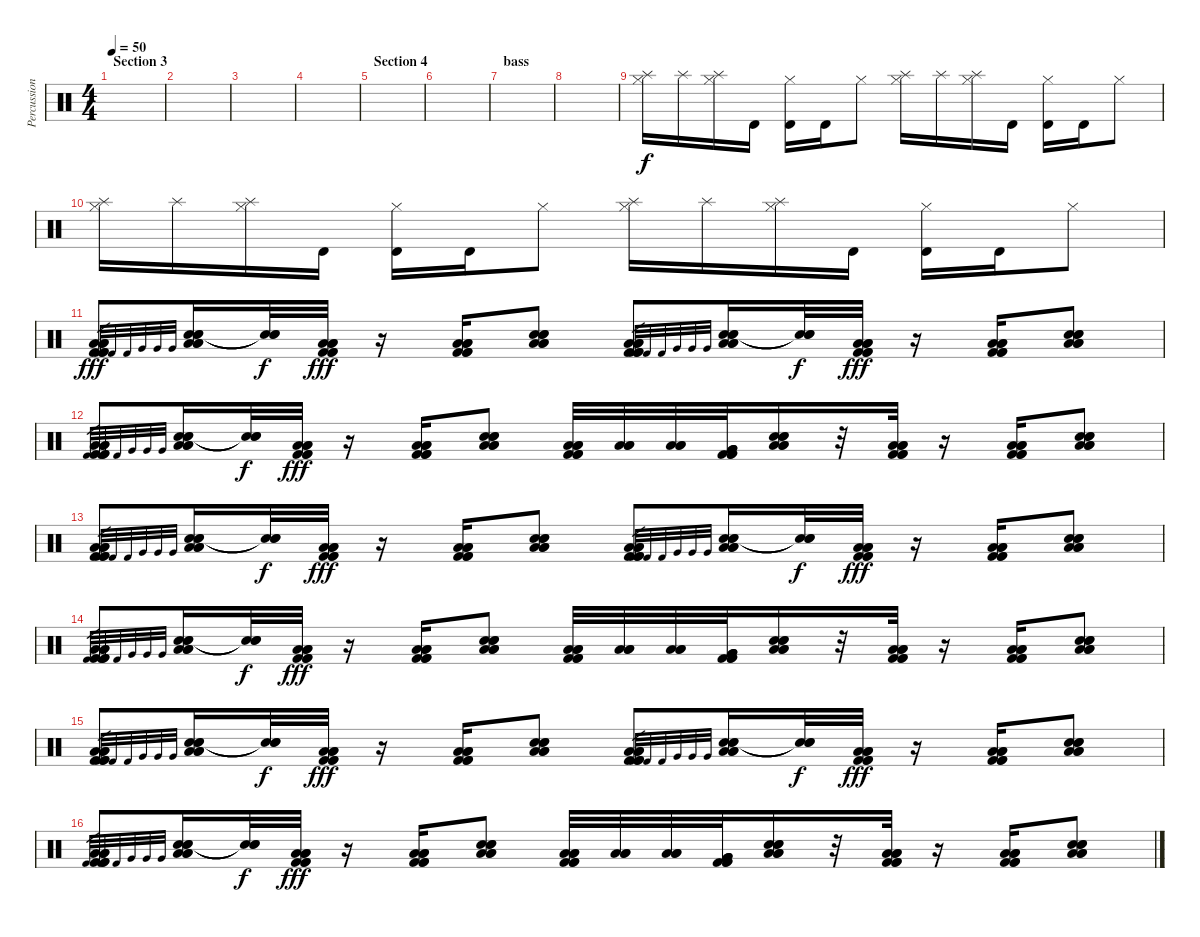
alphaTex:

\track ("Percussion" "Percussion") {instrument percussion}
\staff {score}
\articulation defaults
\ts (4 4)
\section ("" "Section 3")
\tempo 50
\clef neutral
\ks c
|
|
|
|
\section ("" "Section 4")
|
|
\section ("" "bass")
|
|
("Splash (hit)" "Hi-Hat (closed)").16 "Splash (hit)".16 ("Splash (hit)" "Hi-Hat (closed)").16 "Timbale high (hit)".16 ("Timbale high (hit)" "Hi-Hat (closed)").16 "Timbale high (hit)".16 "Hi-Hat (closed)".8 ("Splash (hit)" "Hi-Hat (closed)").16 "Splash (hit)".16 ("Splash (hit)" "Hi-Hat (closed)").16 "Timbale high (hit)".16 ("Timbale high (hit)" "Hi-Hat (closed)").16 "Timbale high (hit)".16 "Hi-Hat (closed)".8 |
("Splash (hit)" "Hi-Hat (closed)").16 "Splash (hit)".16 ("Splash (hit)" "Hi-Hat (closed)").16 "Timbale high (hit)".16 ("Timbale high (hit)" "Hi-Hat (closed)").16 "Timbale high (hit)".16 "Hi-Hat (closed)".8 ("Splash (hit)" "Hi-Hat (closed)").16 "Splash (hit)".16 ("Splash (hit)" "Hi-Hat (closed)").16 "Timbale high (hit)".16 ("Timbale high (hit)" "Hi-Hat (closed)").16 "Timbale high (hit)".16 "Hi-Hat (closed)".8 |
("Kick (hit) 2" "Kick (hit) 2" "Kick (hit) 2" "Low Floor Tom (hit)" "Low Floor Tom (hit)" "Low Floor Tom (hit)").8{dy fff} "Kick (hit) 2".32{gr} "Kick (hit) 2".32{gr} "Kick (hit) 2".32{gr} "Very Low Tom (hit)".32{gr} "Very Low Tom (hit)".32{gr} "Very Low Tom (hit)".32{gr} ("Electric Snare (hit)" "Electric Snare (hit)" "Electric Snare (hit)" "Low Tom (hit)" "Low Tom (hit)" "Low Tom (hit)").16 ("Snare (hit)"{t} "Snare (hit)"{t} "Snare (hit)"{t}).32{dy f} ("Kick (hit) 2" "Kick (hit) 2" "Kick (hit) 2" "Low Floor Tom (hit)" "Low Floor Tom (hit)" "Low Floor Tom (hit)").32{dy fff} r.16 ("Kick (hit) 2" "Kick (hit) 2" "Kick (hit) 2" "Low Floor Tom (hit)" "Low Floor Tom (hit)" "Low Floor Tom (hit)").16 ("Electric Snare (hit)" "Electric Snare (hit)" "Electric Snare (hit)" "Low Tom (hit)" "Low Tom (hit)" "Low Tom (hit)").8 ("Kick (hit) 2" "Kick (hit) 2" "Kick (hit) 2" "Low Floor Tom (hit)" "Low Floor Tom (hit)" "Low Floor Tom (hit)").8 "Kick (hit) 2".32{gr} "Kick (hit) 2".32{gr} "Kick (hit) 2".32{gr} "Very Low Tom (hit)".32{gr} "Very Low Tom (hit)".32{gr} "Very Low Tom (hit)".32{gr} ("Electric Snare (hit)" "Electric Snare (hit)" "Electric Snare (hit)" "Low Tom (hit)" "Low Tom (hit)" "Low Tom (hit)").16 ("Snare (hit)"{t} "Snare (hit)"{t} "Snare (hit)"{t}).32{dy f} ("Kick (hit) 2" "Kick (hit) 2" "Kick (hit) 2" "Low Floor Tom (hit)" "Low Floor Tom (hit)" "Low Floor Tom (hit)").32{dy fff} r.16 ("Kick (hit) 2" "Kick (hit) 2" "Kick (hit) 2" "Low Floor Tom (hit)" "Low Floor Tom (hit)" "Low Floor Tom (hit)").16 ("Electric Snare (hit)" "Electric Snare (hit)" "Electric Snare (hit)" "Low Tom (hit)" "Low Tom (hit)" "Low Tom (hit)").8 |
("Kick (hit) 2" "Kick (hit) 2" "Kick (hit) 2" "Low Floor Tom (hit)" "Low Floor Tom (hit)" "Low Floor Tom (hit)").8 "Kick (hit) 2".32{gr} "Kick (hit) 2".32{gr} "Kick (hit) 2".32{gr} "Very Low Tom (hit)".32{gr} "Very Low Tom (hit)".32{gr} "Very Low Tom (hit)".32{gr} ("Electric Snare (hit)" "Electric Snare (hit)" "Electric Snare (hit)" "Low Tom (hit)" "Low Tom (hit)" "Low Tom (hit)").16 ("Snare (hit)"{t} "Snare (hit)"{t} "Snare (hit)"{t}).32{dy f} ("Kick (hit) 2" "Kick (hit) 2" "Kick (hit) 2" "Low Floor Tom (hit)" "Low Floor Tom (hit)" "Low Floor Tom (hit)").32{dy fff} r.16 ("Kick (hit) 2" "Kick (hit) 2" "Kick (hit) 2" "Low Floor Tom (hit)" "Low Floor Tom (hit)" "Low Floor Tom (hit)").16 ("Electric Snare (hit)" "Electric Snare (hit)" "Electric Snare (hit)" "Low Tom (hit)" "Low Tom (hit)" "Low Tom (hit)").8 ("Kick (hit) 2" "Kick (hit) 2" "Kick (hit) 2" "Low Floor Tom (hit)" "Low Floor Tom (hit)" "Low Floor Tom (hit)").32 ("Low Tom (hit)" "Low Tom (hit)" "Low Tom (hit)").32 ("Low Floor Tom (hit)" "Low Floor Tom (hit)" "Low Floor Tom (hit)").32 ("Very Low Tom (hit)" "Very Low Tom (hit)" "Very Low Tom (hit)" "Kick (hit) 2" "Kick (hit) 2" "Kick (hit) 2").32 ("Electric Snare (hit)" "Electric Snare (hit)" "Electric Snare (hit)" "Low Tom (hit)" "Low Tom (hit)" "Low Tom (hit)").16 r.32 ("Kick (hit) 2" "Kick (hit) 2" "Kick (hit) 2" "Low Floor Tom (hit)" "Low Floor Tom (hit)" "Low Floor Tom (hit)").32 r.16 ("Kick (hit) 2" "Kick (hit) 2" "Kick (hit) 2" "Low Floor Tom (hit)" "Low Floor Tom (hit)" "Low Floor Tom (hit)").16 ("Electric Snare (hit)" "Electric Snare (hit)" "Electric Snare (hit)" "Low Tom (hit)" "Low Tom (hit)" "Low Tom (hit)").8 |
("Kick (hit) 2" "Kick (hit) 2" "Kick (hit) 2" "Low Floor Tom (hit)" "Low Floor Tom (hit)" "Low Floor Tom (hit)").8 "Kick (hit) 2".32{gr} "Kick (hit) 2".32{gr} "Kick (hit) 2".32{gr} "Very Low Tom (hit)".32{gr} "Very Low Tom (hit)".32{gr} "Very Low Tom (hit)".32{gr} ("Electric Snare (hit)" "Electric Snare (hit)" "Electric Snare (hit)" "Low Tom (hit)" "Low Tom (hit)" "Low Tom (hit)").16 ("Snare (hit)"{t} "Snare (hit)"{t} "Snare (hit)"{t}).32{dy f} ("Kick (hit) 2" "Kick (hit) 2" "Kick (hit) 2" "Low Floor Tom (hit)" "Low Floor Tom (hit)" "Low Floor Tom (hit)").32{dy fff} r.16 ("Kick (hit) 2" "Kick (hit) 2" "Kick (hit) 2" "Low Floor Tom (hit)" "Low Floor Tom (hit)" "Low Floor Tom (hit)").16 ("Electric Snare (hit)" "Electric Snare (hit)" "Electric Snare (hit)" "Low Tom (hit)" "Low Tom (hit)" "Low Tom (hit)").8 ("Kick (hit) 2" "Kick (hit) 2" "Kick (hit) 2" "Low Floor Tom (hit)" "Low Floor Tom (hit)" "Low Floor Tom (hit)").8 "Kick (hit) 2".32{gr} "Kick (hit) 2".32{gr} "Kick (hit) 2".32{gr} "Very Low Tom (hit)".32{gr} "Very Low Tom (hit)".32{gr} "Very Low Tom (hit)".32{gr} ("Electric Snare (hit)" "Electric Snare (hit)" "Electric Snare (hit)" "Low Tom (hit)" "Low Tom (hit)" "Low Tom (hit)").16 ("Snare (hit)"{t} "Snare (hit)"{t} "Snare (hit)"{t}).32{dy f} ("Kick (hit) 2" "Kick (hit) 2" "Kick (hit) 2" "Low Floor Tom (hit)" "Low Floor Tom (hit)" "Low Floor Tom (hit)").32{dy fff} r.16 ("Kick (hit) 2" "Kick (hit) 2" "Kick (hit) 2" "Low Floor Tom (hit)" "Low Floor Tom (hit)" "Low Floor Tom (hit)").16 ("Electric Snare (hit)" "Electric Snare (hit)" "Electric Snare (hit)" "Low Tom (hit)" "Low Tom (hit)" "Low Tom (hit)").8 |
("Kick (hit) 2" "Kick (hit) 2" "Kick (hit) 2" "Low Floor Tom (hit)" "Low Floor Tom (hit)" "Low Floor Tom (hit)").8 "Kick (hit) 2".32{gr} "Kick (hit) 2".32{gr} "Kick (hit) 2".32{gr} "Very Low Tom (hit)".32{gr} "Very Low Tom (hit)".32{gr} "Very Low Tom (hit)".32{gr} ("Electric Snare (hit)" "Electric Snare (hit)" "Electric Snare (hit)" "Low Tom (hit)" "Low Tom (hit)" "Low Tom (hit)").16 ("Snare (hit)"{t} "Snare (hit)"{t} "Snare (hit)"{t}).32{dy f} ("Kick (hit) 2" "Kick (hit) 2" "Kick (hit) 2" "Low Floor Tom (hit)" "Low Floor Tom (hit)" "Low Floor Tom (hit)").32{dy fff} r.16 ("Kick (hit) 2" "Kick (hit) 2" "Kick (hit) 2" "Low Floor Tom (hit)" "Low Floor Tom (hit)" "Low Floor Tom (hit)").16 ("Electric Snare (hit)" "Electric Snare (hit)" "Electric Snare (hit)" "Low Tom (hit)" "Low Tom (hit)" "Low Tom (hit)").8 ("Kick (hit) 2" "Kick (hit) 2" "Kick (hit) 2" "Low Floor Tom (hit)" "Low Floor Tom (hit)" "Low Floor Tom (hit)").32 ("Low Tom (hit)" "Low Tom (hit)" "Low Tom (hit)").32 ("Low Floor Tom (hit)" "Low Floor Tom (hit)" "Low Floor Tom (hit)").32 ("Very Low Tom (hit)" "Very Low Tom (hit)" "Very Low Tom (hit)" "Kick (hit) 2" "Kick (hit) 2" "Kick (hit) 2").32 ("Electric Snare (hit)" "Electric Snare (hit)" "Electric Snare (hit)" "Low Tom (hit)" "Low Tom (hit)" "Low Tom (hit)").16 r.32 ("Kick (hit) 2" "Kick (hit) 2" "Kick (hit) 2" "Low Floor Tom (hit)" "Low Floor Tom (hit)" "Low Floor Tom (hit)").32 r.16 ("Kick (hit) 2" "Kick (hit) 2" "Kick (hit) 2" "Low Floor Tom (hit)" "Low Floor Tom (hit)" "Low Floor Tom (hit)").16 ("Electric Snare (hit)" "Electric Snare (hit)" "Electric Snare (hit)" "Low Tom (hit)" "Low Tom (hit)" "Low Tom (hit)").8 |
("Kick (hit) 2" "Kick (hit) 2" "Kick (hit) 2" "Low Floor Tom (hit)" "Low Floor Tom (hit)" "Low Floor Tom (hit)").8 "Kick (hit) 2".32{gr} "Kick (hit) 2".32{gr} "Kick (hit) 2".32{gr} "Very Low Tom (hit)".32{gr} "Very Low Tom (hit)".32{gr} "Very Low Tom (hit)".32{gr} ("Electric Snare (hit)" "Electric Snare (hit)" "Electric Snare (hit)" "Low Tom (hit)" "Low Tom (hit)" "Low Tom (hit)").16 ("Snare (hit)"{t} "Snare (hit)"{t} "Snare (hit)"{t}).32{dy f} ("Kick (hit) 2" "Kick (hit) 2" "Kick (hit) 2" "Low Floor Tom (hit)" "Low Floor Tom (hit)" "Low Floor Tom (hit)").32{dy fff} r.16 ("Kick (hit) 2" "Kick (hit) 2" "Kick (hit) 2" "Low Floor Tom (hit)" "Low Floor Tom (hit)" "Low Floor Tom (hit)").16 ("Electric Snare (hit)" "Electric Snare (hit)" "Electric Snare (hit)" "Low Tom (hit)" "Low Tom (hit)" "Low Tom (hit)").8 ("Kick (hit) 2" "Kick (hit) 2" "Kick (hit) 2" "Low Floor Tom (hit)" "Low Floor Tom (hit)" "Low Floor Tom (hit)").8 "Kick (hit) 2".32{gr} "Kick (hit) 2".32{gr} "Kick (hit) 2".32{gr} "Very Low Tom (hit)".32{gr} "Very Low Tom (hit)".32{gr} "Very Low Tom (hit)".32{gr} ("Electric Snare (hit)" "Electric Snare (hit)" "Electric Snare (hit)" "Low Tom (hit)" "Low Tom (hit)" "Low Tom (hit)").16 ("Snare (hit)"{t} "Snare (hit)"{t} "Snare (hit)"{t}).32{dy f} ("Kick (hit) 2" "Kick (hit) 2" "Kick (hit) 2" "Low Floor Tom (hit)" "Low Floor Tom (hit)" "Low Floor Tom (hit)").32{dy fff} r.16 ("Kick (hit) 2" "Kick (hit) 2" "Kick (hit) 2" "Low Floor Tom (hit)" "Low Floor Tom (hit)" "Low Floor Tom (hit)").16 ("Electric Snare (hit)" "Electric Snare (hit)" "Electric Snare (hit)" "Low Tom (hit)" "Low Tom (hit)" "Low Tom (hit)").8 |
("Kick (hit) 2" "Kick (hit) 2" "Kick (hit) 2" "Low Floor Tom (hit)" "Low Floor Tom (hit)" "Low Floor Tom (hit)").8 "Kick (hit) 2".32{gr} "Kick (hit) 2".32{gr} "Kick (hit) 2".32{gr} "Very Low Tom (hit)".32{gr} "Very Low Tom (hit)".32{gr} "Very Low Tom (hit)".32{gr} ("Electric Snare (hit)" "Electric Snare (hit)" "Electric Snare (hit)" "Low Tom (hit)" "Low Tom (hit)" "Low Tom (hit)").16 ("Snare (hit)"{t} "Snare (hit)"{t} "Snare (hit)"{t}).32{dy f} ("Kick (hit) 2" "Kick (hit) 2" "Kick (hit) 2" "Low Floor Tom (hit)" "Low Floor Tom (hit)" "Low Floor Tom (hit)").32{dy fff} r.16 ("Kick (hit) 2" "Kick (hit) 2" "Kick (hit) 2" "Low Floor Tom (hit)" "Low Floor Tom (hit)" "Low Floor Tom (hit)").16 ("Electric Snare (hit)" "Electric Snare (hit)" "Electric Snare (hit)" "Low Tom (hit)" "Low Tom (hit)" "Low Tom (hit)").8 ("Kick (hit) 2" "Kick (hit) 2" "Kick (hit) 2" "Low Floor Tom (hit)" "Low Floor Tom (hit)" "Low Floor Tom (hit)").32 ("Low Tom (hit)" "Low Tom (hit)" "Low Tom (hit)").32 ("Low Floor Tom (hit)" "Low Floor Tom (hit)" "Low Floor Tom (hit)").32 ("Very Low Tom (hit)" "Very Low Tom (hit)" "Very Low Tom (hit)" "Kick (hit) 2" "Kick (hit) 2" "Kick (hit) 2").32 ("Electric Snare (hit)" "Electric Snare (hit)" "Electric Snare (hit)" "Low Tom (hit)" "Low Tom (hit)" "Low Tom (hit)").16 r.32 ("Kick (hit) 2" "Kick (hit) 2" "Kick (hit) 2" "Low Floor Tom (hit)" "Low Floor Tom (hit)" "Low Floor Tom (hit)").32 r.16 ("Kick (hit) 2" "Kick (hit) 2" "Kick (hit) 2" "Low Floor Tom (hit)" "Low Floor Tom (hit)" "Low Floor Tom (hit)").16 ("Electric Snare (hit)" "Electric Snare (hit)" "Electric Snare (hit)" "Low Tom (hit)" "Low Tom (hit)" "Low Tom (hit)").8
